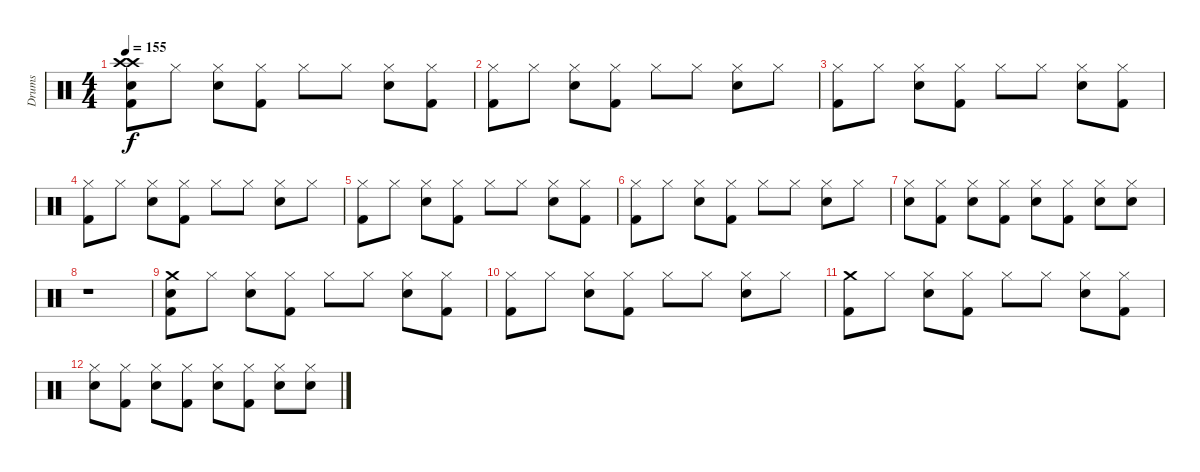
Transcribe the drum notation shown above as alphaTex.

\track ("Drums" "Drums") {instrument percussion}
\staff {score}
\articulation defaults
\ts (4 4)
\tempo 155
\clef neutral
\ks c
("Snare (hit)" "Kick (hit) 2" "Crash high (hit)" "Crash high (hit)").8{dy f} "Hi-Hat (closed)".8 ("Hi-Hat (closed)" "Snare (hit) 2").8 ("Hi-Hat (closed)" "Kick (hit) 2").8 "Hi-Hat (closed)".8 "Hi-Hat (closed)".8 ("Hi-Hat (closed)" "Snare (hit) 2").8 ("Hi-Hat (closed)" "Kick (hit) 2").8 |
("Hi-Hat (closed)" "Kick (hit) 2").8 "Hi-Hat (closed)".8 ("Hi-Hat (closed)" "Snare (hit) 2").8 ("Hi-Hat (closed)" "Kick (hit) 2").8 "Hi-Hat (closed)".8 "Hi-Hat (closed)".8 ("Hi-Hat (closed)" "Snare (hit) 2").8 "Hi-Hat (closed)".8 |
("Hi-Hat (closed)" "Kick (hit) 2").8 "Hi-Hat (closed)".8 ("Hi-Hat (closed)" "Snare (hit) 2").8 ("Hi-Hat (closed)" "Kick (hit) 2").8 "Hi-Hat (closed)".8 "Hi-Hat (closed)".8 ("Hi-Hat (closed)" "Snare (hit) 2").8 ("Hi-Hat (closed)" "Kick (hit) 2").8 |
("Hi-Hat (closed)" "Kick (hit) 2").8 "Hi-Hat (closed)".8 ("Hi-Hat (closed)" "Snare (hit) 2").8 ("Hi-Hat (closed)" "Kick (hit) 2").8 "Hi-Hat (closed)".8 "Hi-Hat (closed)".8 ("Hi-Hat (closed)" "Snare (hit) 2").8 "Hi-Hat (closed)".8 |
("Hi-Hat (closed)" "Kick (hit) 2").8 "Hi-Hat (closed)".8 ("Hi-Hat (closed)" "Snare (hit) 2").8 ("Hi-Hat (closed)" "Kick (hit) 2").8 "Hi-Hat (closed)".8 "Hi-Hat (closed)".8 ("Hi-Hat (closed)" "Snare (hit) 2").8 ("Hi-Hat (closed)" "Kick (hit) 2").8 |
("Hi-Hat (closed)" "Kick (hit) 2").8 "Hi-Hat (closed)".8 ("Hi-Hat (closed)" "Snare (hit) 2").8 ("Hi-Hat (closed)" "Kick (hit) 2").8 "Hi-Hat (closed)".8 "Hi-Hat (closed)".8 ("Hi-Hat (closed)" "Snare (hit) 2").8 "Hi-Hat (closed)".8 |
("Hi-Hat (closed)" "Snare (hit) 2").8 ("Hi-Hat (closed)" "Kick (hit) 2").8 ("Hi-Hat (closed)" "Snare (hit) 2").8 ("Hi-Hat (closed)" "Kick (hit) 2").8 ("Hi-Hat (closed)" "Snare (hit) 2").8 ("Hi-Hat (closed)" "Kick (hit) 2").8 ("Hi-Hat (closed)" "Snare (hit) 2").8 ("Hi-Hat (closed)" "Snare (hit) 2").8 |
r.1 |
("Snare (hit)" "Kick (hit) 2" "Crash medium (hit)").8 "Hi-Hat (closed)".8 ("Hi-Hat (closed)" "Snare (hit) 2").8 ("Hi-Hat (closed)" "Kick (hit) 2").8 "Hi-Hat (closed)".8 "Hi-Hat (closed)".8 ("Hi-Hat (closed)" "Snare (hit) 2").8 ("Hi-Hat (closed)" "Kick (hit) 2").8 |
("Hi-Hat (closed)" "Kick (hit) 2").8 "Hi-Hat (closed)".8 ("Hi-Hat (closed)" "Snare (hit) 2").8 ("Hi-Hat (closed)" "Kick (hit) 2").8 "Hi-Hat (closed)".8 "Hi-Hat (closed)".8 ("Hi-Hat (closed)" "Snare (hit) 2").8 "Hi-Hat (closed)".8 |
("Crash medium (hit)" "Kick (hit) 2").8 "Hi-Hat (closed)".8 ("Hi-Hat (closed)" "Snare (hit) 2").8 ("Hi-Hat (closed)" "Kick (hit) 2").8 "Hi-Hat (closed)".8 "Hi-Hat (closed)".8 ("Hi-Hat (closed)" "Snare (hit) 2").8 ("Hi-Hat (closed)" "Kick (hit) 2").8 |
("Hi-Hat (closed)" "Snare (hit) 2").8 ("Hi-Hat (closed)" "Kick (hit) 2").8 ("Hi-Hat (closed)" "Snare (hit) 2").8 ("Hi-Hat (closed)" "Kick (hit) 2").8 ("Hi-Hat (closed)" "Snare (hit) 2").8 ("Hi-Hat (closed)" "Kick (hit) 2").8 ("Hi-Hat (closed)" "Snare (hit) 2").8 ("Hi-Hat (closed)" "Snare (hit) 2").8
